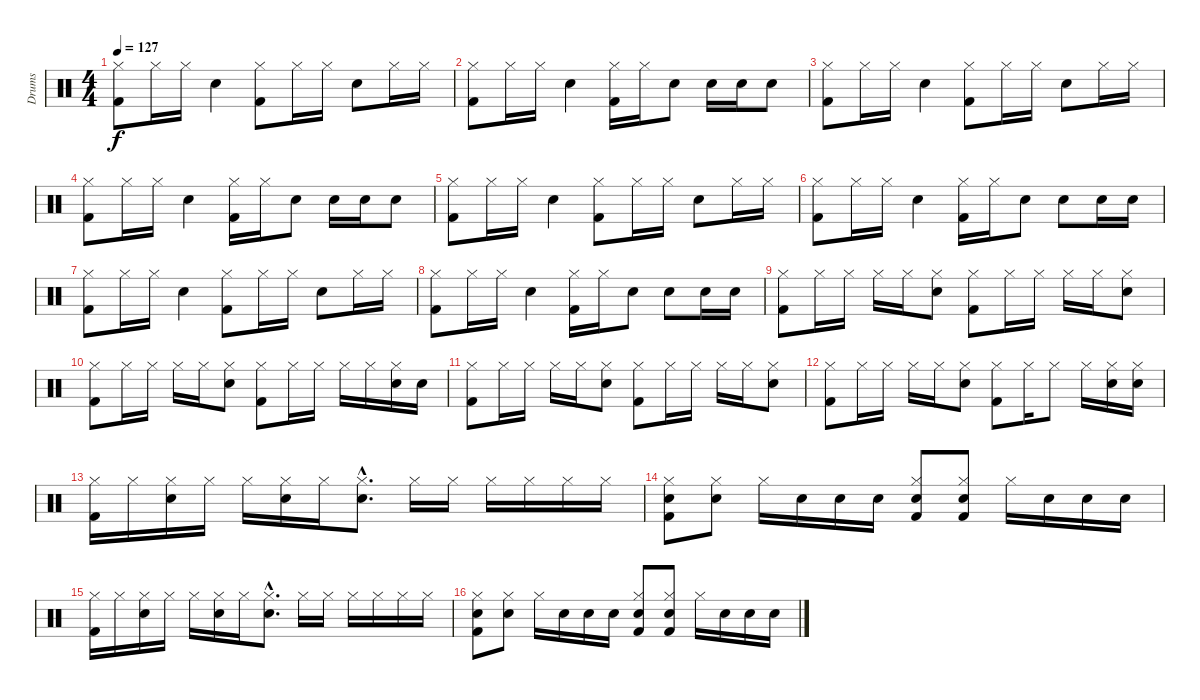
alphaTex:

\track ("Drums" "Drums") {instrument percussion}
\staff {score}
\articulation defaults
\ts (4 4)
\tempo 127
\clef neutral
\ks c
("Kick (hit) 2" "Hi-Hat (closed)").8{dy f} "Hi-Hat (closed)".16 "Hi-Hat (closed)".16 "Electric Snare (hit)".4 ("Kick (hit) 2" "Hi-Hat (closed)").8 "Hi-Hat (closed)".16 "Hi-Hat (closed)".16 "Electric Snare (hit)".8 "Hi-Hat (closed)".16 "Hi-Hat (closed)".16 |
("Kick (hit) 2" "Hi-Hat (closed)").8 "Hi-Hat (closed)".16 "Hi-Hat (closed)".16 "Electric Snare (hit)".4 ("Kick (hit) 2" "Hi-Hat (closed)").16 "Hi-Hat (closed)".16 "Electric Snare (hit)".8 "Electric Snare (hit)".16 "Electric Snare (hit)".16 "Electric Snare (hit)".8 |
("Kick (hit) 2" "Hi-Hat (closed)").8 "Hi-Hat (closed)".16 "Hi-Hat (closed)".16 "Electric Snare (hit)".4 ("Kick (hit) 2" "Hi-Hat (closed)").8 "Hi-Hat (closed)".16 "Hi-Hat (closed)".16 "Electric Snare (hit)".8 "Hi-Hat (closed)".16 "Hi-Hat (closed)".16 |
("Kick (hit) 2" "Hi-Hat (closed)").8 "Hi-Hat (closed)".16 "Hi-Hat (closed)".16 "Electric Snare (hit)".4 ("Kick (hit) 2" "Hi-Hat (closed)").16 "Hi-Hat (closed)".16 "Electric Snare (hit)".8 "Electric Snare (hit)".16 "Electric Snare (hit)".16 "Electric Snare (hit)".8 |
("Kick (hit) 2" "Hi-Hat (closed)").8 "Hi-Hat (closed)".16 "Hi-Hat (closed)".16 "Electric Snare (hit)".4 ("Kick (hit) 2" "Hi-Hat (closed)").8 "Hi-Hat (closed)".16 "Hi-Hat (closed)".16 "Electric Snare (hit)".8 "Hi-Hat (closed)".16 "Hi-Hat (closed)".16 |
("Kick (hit) 2" "Hi-Hat (closed)").8 "Hi-Hat (closed)".16 "Hi-Hat (closed)".16 "Electric Snare (hit)".4 ("Kick (hit) 2" "Hi-Hat (closed)").16 "Hi-Hat (closed)".16 "Electric Snare (hit)".8 "Electric Snare (hit)".8 "Electric Snare (hit)".16 "Electric Snare (hit)".16 |
("Kick (hit) 2" "Hi-Hat (closed)").8 "Hi-Hat (closed)".16 "Hi-Hat (closed)".16 "Electric Snare (hit)".4 ("Kick (hit) 2" "Hi-Hat (closed)").8 "Hi-Hat (closed)".16 "Hi-Hat (closed)".16 "Electric Snare (hit)".8 "Hi-Hat (closed)".16 "Hi-Hat (closed)".16 |
("Kick (hit) 2" "Hi-Hat (closed)").8 "Hi-Hat (closed)".16 "Hi-Hat (closed)".16 "Electric Snare (hit)".4 ("Kick (hit) 2" "Hi-Hat (closed)").16 "Hi-Hat (closed)".16 "Electric Snare (hit)".8 "Electric Snare (hit)".8 "Electric Snare (hit)".16 "Electric Snare (hit)".16 |
("Kick (hit) 2" "Hi-Hat (closed)").8 "Hi-Hat (closed)".16 "Hi-Hat (closed)".16 "Hi-Hat (closed)".16 "Hi-Hat (closed)".16 ("Electric Snare (hit)" "Hi-Hat (closed)").8 ("Kick (hit) 2" "Hi-Hat (closed)").8 "Hi-Hat (closed)".16 "Hi-Hat (closed)".16 "Hi-Hat (closed)".16 "Hi-Hat (closed)".16 ("Electric Snare (hit)" "Hi-Hat (closed)").8 |
("Kick (hit) 2" "Hi-Hat (closed)").8 "Hi-Hat (closed)".16 "Hi-Hat (closed)".16 "Hi-Hat (closed)".16 "Hi-Hat (closed)".16 ("Electric Snare (hit)" "Hi-Hat (closed)").8 ("Kick (hit) 2" "Hi-Hat (closed)").8 "Hi-Hat (closed)".16 "Hi-Hat (closed)".16 "Hi-Hat (closed)".16 "Hi-Hat (closed)".16 ("Electric Snare (hit)" "Hi-Hat (closed)").16 "Electric Snare (hit)".16 |
("Kick (hit) 2" "Hi-Hat (closed)").8 "Hi-Hat (closed)".16 "Hi-Hat (closed)".16 "Hi-Hat (closed)".16 "Hi-Hat (closed)".16 ("Electric Snare (hit)" "Hi-Hat (closed)").8 ("Kick (hit) 2" "Hi-Hat (closed)").8 "Hi-Hat (closed)".16 "Hi-Hat (closed)".16 "Hi-Hat (closed)".16 "Hi-Hat (closed)".16 ("Electric Snare (hit)" "Hi-Hat (closed)").8 |
("Kick (hit) 2" "Hi-Hat (closed)").8 "Hi-Hat (closed)".16 "Hi-Hat (closed)".16 "Hi-Hat (closed)".16 "Hi-Hat (closed)".16 ("Electric Snare (hit)" "Hi-Hat (closed)").8 ("Kick (hit) 2" "Hi-Hat (closed)").8 "Hi-Hat (closed)".16 "Hi-Hat (closed)".8 "Hi-Hat (closed)".16 ("Electric Snare (hit)" "Hi-Hat (closed)").16 ("Electric Snare (hit)" "Hi-Hat (closed)").16 |
("Kick (hit) 2" "Hi-Hat (closed)").16 "Hi-Hat (closed)".16 ("Electric Snare (hit)" "Hi-Hat (closed)").16 "Hi-Hat (closed)".16 "Hi-Hat (closed)".16 ("Electric Snare (hit)" "Hi-Hat (closed)").16 "Hi-Hat (closed)".16 ("Electric Snare (hit)"{hac} "Hi-Hat (closed)"{hac}).8{d} "Hi-Hat (closed)".16 "Hi-Hat (closed)".16 "Hi-Hat (closed)".16 "Hi-Hat (closed)".16 "Hi-Hat (closed)".16 "Hi-Hat (closed)".16 |
("Kick (hit) 2" "Electric Snare (hit)" "Hi-Hat (closed)").8 ("Electric Snare (hit)" "Hi-Hat (closed)").8 "Hi-Hat (closed)".16 "Electric Snare (hit)".16 "Electric Snare (hit)".16 "Electric Snare (hit)".16 ("Kick (hit) 2" "Electric Snare (hit)" "Hi-Hat (closed)").8 ("Kick (hit) 2" "Electric Snare (hit)" "Hi-Hat (closed)").8 "Hi-Hat (closed)".16 "Electric Snare (hit)".16 "Electric Snare (hit)".16 "Electric Snare (hit)".16 |
("Kick (hit) 2" "Hi-Hat (closed)").16 "Hi-Hat (closed)".16 ("Electric Snare (hit)" "Hi-Hat (closed)").16 "Hi-Hat (closed)".16 "Hi-Hat (closed)".16 ("Electric Snare (hit)" "Hi-Hat (closed)").16 "Hi-Hat (closed)".16 ("Electric Snare (hit)"{hac} "Hi-Hat (closed)"{hac}).8{d} "Hi-Hat (closed)".16 "Hi-Hat (closed)".16 "Hi-Hat (closed)".16 "Hi-Hat (closed)".16 "Hi-Hat (closed)".16 "Hi-Hat (closed)".16 |
("Kick (hit) 2" "Electric Snare (hit)" "Hi-Hat (closed)").8 ("Electric Snare (hit)" "Hi-Hat (closed)").8 "Hi-Hat (closed)".16 "Electric Snare (hit)".16 "Electric Snare (hit)".16 "Electric Snare (hit)".16 ("Kick (hit) 2" "Electric Snare (hit)" "Hi-Hat (closed)").8 ("Kick (hit) 2" "Electric Snare (hit)" "Hi-Hat (closed)").8 "Hi-Hat (closed)".16 "Electric Snare (hit)".16 "Electric Snare (hit)".16 "Electric Snare (hit)".16
